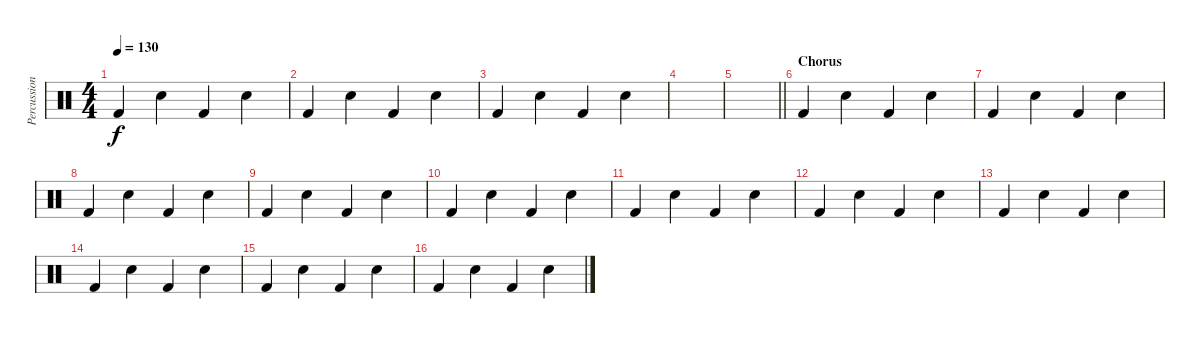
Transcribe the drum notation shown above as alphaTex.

\track ("Percussion 2" "Percussion") {instrument percussion}
\staff {score}
\articulation defaults
\ts (4 4)
\tempo 130
\clef neutral
\ks c "Kick (hit) 2".4{dy f} "Electric Snare (hit)".4 "Kick (hit) 2".4 "Electric Snare (hit)".4
|
"Kick (hit) 2".4 "Electric Snare (hit)".4 "Kick (hit) 2".4 "Electric Snare (hit)".4 |
"Kick (hit) 2".4 "Electric Snare (hit)".4 "Kick (hit) 2".4 "Electric Snare (hit)".4 |
|
\barLineRight lightlight
|
\section ("" "Chorus")
"Kick (hit) 2".4 "Electric Snare (hit)".4 "Kick (hit) 2".4 "Electric Snare (hit)".4 |
"Kick (hit) 2".4 "Electric Snare (hit)".4 "Kick (hit) 2".4 "Electric Snare (hit)".4 |
"Kick (hit) 2".4 "Electric Snare (hit)".4 "Kick (hit) 2".4 "Electric Snare (hit)".4 |
"Kick (hit) 2".4 "Electric Snare (hit)".4 "Kick (hit) 2".4 "Electric Snare (hit)".4 |
"Kick (hit) 2".4 "Electric Snare (hit)".4 "Kick (hit) 2".4 "Electric Snare (hit)".4 |
"Kick (hit) 2".4 "Electric Snare (hit)".4 "Kick (hit) 2".4 "Electric Snare (hit)".4 |
"Kick (hit) 2".4 "Electric Snare (hit)".4 "Kick (hit) 2".4 "Electric Snare (hit)".4 |
"Kick (hit) 2".4 "Electric Snare (hit)".4 "Kick (hit) 2".4 "Electric Snare (hit)".4 |
"Kick (hit) 2".4 "Electric Snare (hit)".4 "Kick (hit) 2".4 "Electric Snare (hit)".4 |
"Kick (hit) 2".4 "Electric Snare (hit)".4 "Kick (hit) 2".4 "Electric Snare (hit)".4 |
"Kick (hit) 2".4 "Electric Snare (hit)".4 "Kick (hit) 2".4 "Electric Snare (hit)".4
